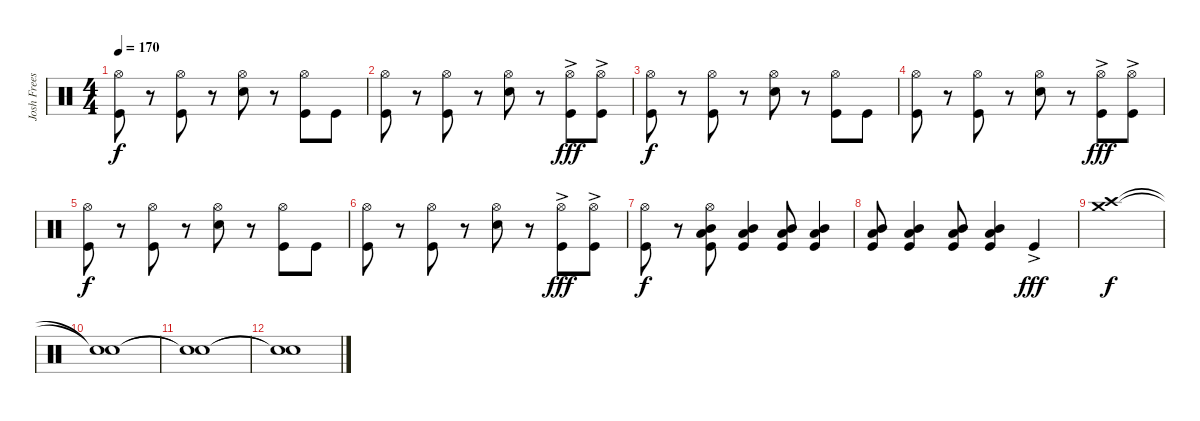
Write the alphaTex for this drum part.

\track ("Josh Freese - Drums" "Josh Frees") {instrument percussion}
\staff {score}
\articulation defaults
\ts (4 4)
\tempo 170
\clef neutral
\ks c
("Hi-Hat (open)" "Kick (hit)").8{dy f} r.8 ("Hi-Hat (open)" "Kick (hit)").8 r.8 ("Hi-Hat (open)" "Electric Snare (hit)").8 r.8 ("Hi-Hat (open)" "Kick (hit)").8 "Kick (hit)".8 |
("Hi-Hat (open)" "Kick (hit)").8 r.8 ("Hi-Hat (open)" "Kick (hit)").8 r.8 ("Hi-Hat (open)" "Electric Snare (hit)").8 r.8 ("Hi-Hat (open)"{ac} "Kick (hit)").8{dy fff} ("Hi-Hat (open)"{ac} "Kick (hit)").8 |
("Hi-Hat (open)" "Kick (hit)").8{dy f} r.8 ("Hi-Hat (open)" "Kick (hit)").8 r.8 ("Hi-Hat (open)" "Electric Snare (hit)").8 r.8 ("Hi-Hat (open)" "Kick (hit)").8 "Kick (hit)".8 |
("Hi-Hat (open)" "Kick (hit)").8 r.8 ("Hi-Hat (open)" "Kick (hit)").8 r.8 ("Hi-Hat (open)" "Electric Snare (hit)").8 r.8 ("Hi-Hat (open)"{ac} "Kick (hit)").8{dy fff} ("Hi-Hat (open)"{ac} "Kick (hit)").8 |
("Hi-Hat (open)" "Kick (hit)").8{dy f} r.8 ("Hi-Hat (open)" "Kick (hit)").8 r.8 ("Hi-Hat (open)" "Electric Snare (hit)").8 r.8 ("Hi-Hat (open)" "Kick (hit)").8 "Kick (hit)".8 |
("Hi-Hat (open)" "Kick (hit)").8 r.8 ("Hi-Hat (open)" "Kick (hit)").8 r.8 ("Hi-Hat (open)" "Electric Snare (hit)").8 r.8 ("Hi-Hat (open)"{ac} "Kick (hit)").8{dy fff} ("Hi-Hat (open)"{ac} "Kick (hit)").8 |
("Hi-Hat (open)" "Kick (hit)").8{dy f} r.8 ("Hi-Hat (open)" "Mid Tom (hit)" "Low Tom (hit)" "Kick (hit)").8 ("Mid Tom (hit)" "Low Tom (hit)" "Kick (hit)").4 ("Mid Tom (hit)" "Low Tom (hit)" "Kick (hit)").8 ("Mid Tom (hit)" "Low Tom (hit)" "Kick (hit)").4 |
("Mid Tom (hit)" "Low Tom (hit)" "Kick (hit)").8 ("Mid Tom (hit)" "Low Tom (hit)" "Kick (hit)").4 ("Mid Tom (hit)" "Low Tom (hit)" "Kick (hit)").8 ("Mid Tom (hit)" "Low Tom (hit)" "Kick (hit)").4 "Kick (hit)"{ac}.4{dy fff} |
("Crash high (hit)" "Crash medium (hit)").1{dy f} |
("Snare (hit)"{t} "Snare (hit)"{t}).1 |
("Snare (hit)"{t} "Snare (hit)"{t}).1 |
("Snare (hit)"{t} "Snare (hit)"{t}).1
